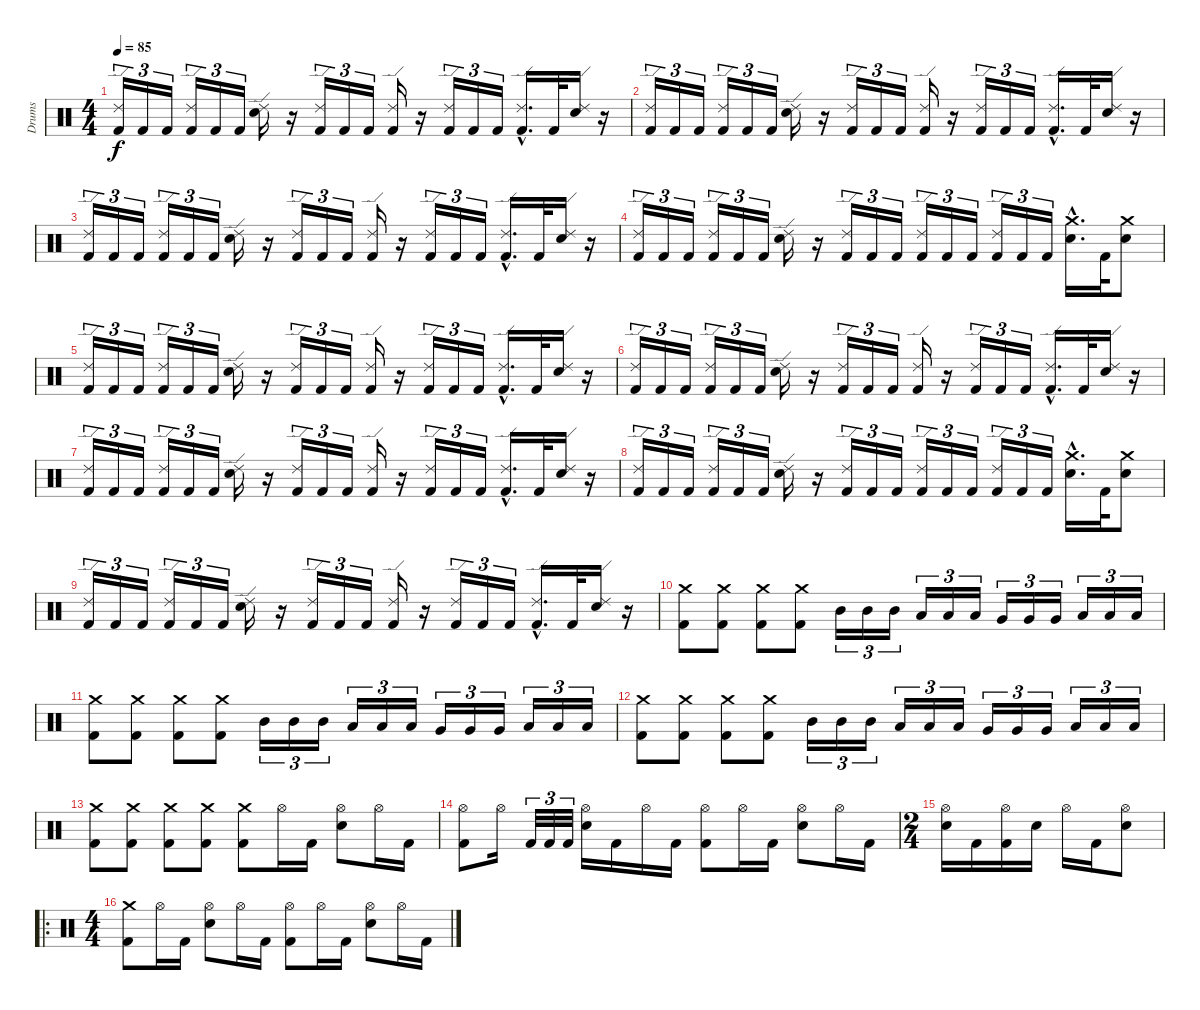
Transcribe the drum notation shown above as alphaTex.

\track ("Drums" "Drums") {instrument percussion}
\staff {score}
\articulation defaults
\ts (4 4)
\tempo 85
\clef neutral
\ks c
("Ride (edge) 2" "Kick (hit) 2").16{tu (3 2) dy f} "Kick (hit) 2".16{tu (3 2)} "Kick (hit) 2".16{tu (3 2)} ("Ride (edge) 2" "Kick (hit) 2").16{tu (3 2)} "Kick (hit) 2".16{tu (3 2)} "Kick (hit) 2".16{tu (3 2)} ("Ride (edge) 2" "Snare (hit) 2").16 r.16 ("Ride (edge) 2" "Kick (hit) 2").16{tu (3 2)} "Kick (hit) 2".16{tu (3 2)} "Kick (hit) 2".16{tu (3 2)} ("Ride (edge) 2" "Kick (hit) 2").16 r.16 ("Ride (edge) 2" "Kick (hit) 2").16{tu (3 2)} "Kick (hit) 2".16{tu (3 2)} "Kick (hit) 2".16{tu (3 2)} ("Ride (edge) 2"{hac} "Kick (hit) 2"{hac}).16{d} "Kick (hit) 2".32 ("Ride (edge) 2" "Snare (hit) 2").16 r.16 |
("Ride (edge) 2" "Kick (hit) 2").16{tu (3 2)} "Kick (hit) 2".16{tu (3 2)} "Kick (hit) 2".16{tu (3 2)} ("Ride (edge) 2" "Kick (hit) 2").16{tu (3 2)} "Kick (hit) 2".16{tu (3 2)} "Kick (hit) 2".16{tu (3 2)} ("Ride (edge) 2" "Snare (hit) 2").16 r.16 ("Ride (edge) 2" "Kick (hit) 2").16{tu (3 2)} "Kick (hit) 2".16{tu (3 2)} "Kick (hit) 2".16{tu (3 2)} ("Ride (edge) 2" "Kick (hit) 2").16 r.16 ("Ride (edge) 2" "Kick (hit) 2").16{tu (3 2)} "Kick (hit) 2".16{tu (3 2)} "Kick (hit) 2".16{tu (3 2)} ("Ride (edge) 2"{hac} "Kick (hit) 2"{hac}).16{d} "Kick (hit) 2".32 ("Ride (edge) 2" "Snare (hit) 2").16 r.16 |
("Ride (edge) 2" "Kick (hit) 2").16{tu (3 2)} "Kick (hit) 2".16{tu (3 2)} "Kick (hit) 2".16{tu (3 2)} ("Ride (edge) 2" "Kick (hit) 2").16{tu (3 2)} "Kick (hit) 2".16{tu (3 2)} "Kick (hit) 2".16{tu (3 2)} ("Ride (edge) 2" "Snare (hit) 2").16 r.16 ("Ride (edge) 2" "Kick (hit) 2").16{tu (3 2)} "Kick (hit) 2".16{tu (3 2)} "Kick (hit) 2".16{tu (3 2)} ("Ride (edge) 2" "Kick (hit) 2").16 r.16 ("Ride (edge) 2" "Kick (hit) 2").16{tu (3 2)} "Kick (hit) 2".16{tu (3 2)} "Kick (hit) 2".16{tu (3 2)} ("Ride (edge) 2"{hac} "Kick (hit) 2"{hac}).16{d} "Kick (hit) 2".32 ("Ride (edge) 2" "Snare (hit) 2").16 r.16 |
("Ride (edge) 2" "Kick (hit) 2").16{tu (3 2)} "Kick (hit) 2".16{tu (3 2)} "Kick (hit) 2".16{tu (3 2)} ("Ride (edge) 2" "Kick (hit) 2").16{tu (3 2)} "Kick (hit) 2".16{tu (3 2)} "Kick (hit) 2".16{tu (3 2)} ("Ride (edge) 2" "Snare (hit) 2").16 r.16 ("Ride (edge) 2" "Kick (hit) 2").16{tu (3 2)} "Kick (hit) 2".16{tu (3 2)} "Kick (hit) 2".16{tu (3 2)} ("Ride (edge) 2" "Kick (hit) 2").16{tu (3 2)} "Kick (hit) 2".16{tu (3 2)} "Kick (hit) 2".16{tu (3 2)} ("Ride (edge) 2" "Kick (hit) 2").16{tu (3 2)} "Kick (hit) 2".16{tu (3 2)} "Kick (hit) 2".16{tu (3 2)} ("Crash medium (hit)"{hac} "Snare (hit) 2"{hac}).16{d} "Kick (hit) 2".32 ("Crash medium (hit)" "Snare (hit) 2").8 |
("Ride (edge) 2" "Kick (hit) 2").16{tu (3 2)} "Kick (hit) 2".16{tu (3 2)} "Kick (hit) 2".16{tu (3 2)} ("Ride (edge) 2" "Kick (hit) 2").16{tu (3 2)} "Kick (hit) 2".16{tu (3 2)} "Kick (hit) 2".16{tu (3 2)} ("Ride (edge) 2" "Snare (hit) 2").16 r.16 ("Ride (edge) 2" "Kick (hit) 2").16{tu (3 2)} "Kick (hit) 2".16{tu (3 2)} "Kick (hit) 2".16{tu (3 2)} ("Ride (edge) 2" "Kick (hit) 2").16 r.16 ("Ride (edge) 2" "Kick (hit) 2").16{tu (3 2)} "Kick (hit) 2".16{tu (3 2)} "Kick (hit) 2".16{tu (3 2)} ("Ride (edge) 2"{hac} "Kick (hit) 2"{hac}).16{d} "Kick (hit) 2".32 ("Ride (edge) 2" "Snare (hit) 2").16 r.16 |
("Ride (edge) 2" "Kick (hit) 2").16{tu (3 2)} "Kick (hit) 2".16{tu (3 2)} "Kick (hit) 2".16{tu (3 2)} ("Ride (edge) 2" "Kick (hit) 2").16{tu (3 2)} "Kick (hit) 2".16{tu (3 2)} "Kick (hit) 2".16{tu (3 2)} ("Ride (edge) 2" "Snare (hit) 2").16 r.16 ("Ride (edge) 2" "Kick (hit) 2").16{tu (3 2)} "Kick (hit) 2".16{tu (3 2)} "Kick (hit) 2".16{tu (3 2)} ("Ride (edge) 2" "Kick (hit) 2").16 r.16 ("Ride (edge) 2" "Kick (hit) 2").16{tu (3 2)} "Kick (hit) 2".16{tu (3 2)} "Kick (hit) 2".16{tu (3 2)} ("Ride (edge) 2"{hac} "Kick (hit) 2"{hac}).16{d} "Kick (hit) 2".32 ("Ride (edge) 2" "Snare (hit) 2").16 r.16 |
("Ride (edge) 2" "Kick (hit) 2").16{tu (3 2)} "Kick (hit) 2".16{tu (3 2)} "Kick (hit) 2".16{tu (3 2)} ("Ride (edge) 2" "Kick (hit) 2").16{tu (3 2)} "Kick (hit) 2".16{tu (3 2)} "Kick (hit) 2".16{tu (3 2)} ("Ride (edge) 2" "Snare (hit) 2").16 r.16 ("Ride (edge) 2" "Kick (hit) 2").16{tu (3 2)} "Kick (hit) 2".16{tu (3 2)} "Kick (hit) 2".16{tu (3 2)} ("Ride (edge) 2" "Kick (hit) 2").16 r.16 ("Ride (edge) 2" "Kick (hit) 2").16{tu (3 2)} "Kick (hit) 2".16{tu (3 2)} "Kick (hit) 2".16{tu (3 2)} ("Ride (edge) 2"{hac} "Kick (hit) 2"{hac}).16{d} "Kick (hit) 2".32 ("Ride (edge) 2" "Snare (hit) 2").16 r.16 |
("Ride (edge) 2" "Kick (hit) 2").16{tu (3 2)} "Kick (hit) 2".16{tu (3 2)} "Kick (hit) 2".16{tu (3 2)} ("Ride (edge) 2" "Kick (hit) 2").16{tu (3 2)} "Kick (hit) 2".16{tu (3 2)} "Kick (hit) 2".16{tu (3 2)} ("Ride (edge) 2" "Snare (hit) 2").16 r.16 ("Ride (edge) 2" "Kick (hit) 2").16{tu (3 2)} "Kick (hit) 2".16{tu (3 2)} "Kick (hit) 2".16{tu (3 2)} ("Ride (edge) 2" "Kick (hit) 2").16{tu (3 2)} "Kick (hit) 2".16{tu (3 2)} "Kick (hit) 2".16{tu (3 2)} ("Ride (edge) 2" "Kick (hit) 2").16{tu (3 2)} "Kick (hit) 2".16{tu (3 2)} "Kick (hit) 2".16{tu (3 2)} ("Crash medium (hit)"{hac} "Snare (hit) 2"{hac}).16{d} "Kick (hit) 2".32 ("Crash medium (hit)" "Snare (hit) 2").8 |
("Ride (edge) 2" "Kick (hit) 2").16{tu (3 2)} "Kick (hit) 2".16{tu (3 2)} "Kick (hit) 2".16{tu (3 2)} ("Ride (edge) 2" "Kick (hit) 2").16{tu (3 2)} "Kick (hit) 2".16{tu (3 2)} "Kick (hit) 2".16{tu (3 2)} ("Ride (edge) 2" "Snare (hit) 2").16 r.16 ("Ride (edge) 2" "Kick (hit) 2").16{tu (3 2)} "Kick (hit) 2".16{tu (3 2)} "Kick (hit) 2".16{tu (3 2)} ("Ride (edge) 2" "Kick (hit) 2").16 r.16 ("Ride (edge) 2" "Kick (hit) 2").16{tu (3 2)} "Kick (hit) 2".16{tu (3 2)} "Kick (hit) 2".16{tu (3 2)} ("Ride (edge) 2"{hac} "Kick (hit) 2"{hac}).16{d} "Kick (hit) 2".32 ("Ride (edge) 2" "Snare (hit) 2").16 r.16 |
("Crash medium (hit)" "Kick (hit) 2").8 ("Crash medium (hit)" "Kick (hit) 2").8 ("Crash medium (hit)" "Kick (hit) 2").8 ("Crash medium (hit)" "Kick (hit) 2").8 "Mid Tom (hit)".16{tu (3 2)} "Mid Tom (hit)".16{tu (3 2)} "Mid Tom (hit)".16{tu (3 2)} "Low Tom (hit)".16{tu (3 2)} "Low Tom (hit)".16{tu (3 2)} "Low Tom (hit)".16{tu (3 2)} "Very Low Tom (hit)".16{tu (3 2)} "Very Low Tom (hit)".16{tu (3 2)} "Very Low Tom (hit)".16{tu (3 2)} "Low Floor Tom (hit)".16{tu (3 2)} "Low Floor Tom (hit)".16{tu (3 2)} "Low Floor Tom (hit)".16{tu (3 2)} |
("Crash medium (hit)" "Kick (hit) 2").8 ("Crash medium (hit)" "Kick (hit) 2").8 ("Crash medium (hit)" "Kick (hit) 2").8 ("Crash medium (hit)" "Kick (hit) 2").8 "Mid Tom (hit)".16{tu (3 2)} "Mid Tom (hit)".16{tu (3 2)} "Mid Tom (hit)".16{tu (3 2)} "Low Tom (hit)".16{tu (3 2)} "Low Tom (hit)".16{tu (3 2)} "Low Tom (hit)".16{tu (3 2)} "Very Low Tom (hit)".16{tu (3 2)} "Very Low Tom (hit)".16{tu (3 2)} "Very Low Tom (hit)".16{tu (3 2)} "Low Floor Tom (hit)".16{tu (3 2)} "Low Floor Tom (hit)".16{tu (3 2)} "Low Floor Tom (hit)".16{tu (3 2)} |
("Crash medium (hit)" "Kick (hit) 2").8 ("Crash medium (hit)" "Kick (hit) 2").8 ("Crash medium (hit)" "Kick (hit) 2").8 ("Crash medium (hit)" "Kick (hit) 2").8 "Mid Tom (hit)".16{tu (3 2)} "Mid Tom (hit)".16{tu (3 2)} "Mid Tom (hit)".16{tu (3 2)} "Low Tom (hit)".16{tu (3 2)} "Low Tom (hit)".16{tu (3 2)} "Low Tom (hit)".16{tu (3 2)} "Very Low Tom (hit)".16{tu (3 2)} "Very Low Tom (hit)".16{tu (3 2)} "Very Low Tom (hit)".16{tu (3 2)} "Low Floor Tom (hit)".16{tu (3 2)} "Low Floor Tom (hit)".16{tu (3 2)} "Low Floor Tom (hit)".16{tu (3 2)} |
("Crash medium (hit)" "Kick (hit) 2").8 ("Crash medium (hit)" "Kick (hit) 2").8 ("Crash medium (hit)" "Kick (hit) 2").8 ("Crash medium (hit)" "Kick (hit) 2").8 ("Crash medium (hit)" "Kick (hit) 2").8 "Hi-Hat (open)".16 "Kick (hit) 2".16 ("Hi-Hat (open)" "Snare (hit) 2").8 "Hi-Hat (open)".16 "Kick (hit) 2".16 |
("Hi-Hat (open)" "Kick (hit) 2").8 "Hi-Hat (open)".16 "Kick (hit) 2".32{tu (3 2)} "Kick (hit) 2".32{tu (3 2)} "Kick (hit) 2".32{tu (3 2)} ("Hi-Hat (open)" "Snare (hit) 2").16 "Kick (hit) 2".16 "Hi-Hat (open)".16 "Kick (hit) 2".16 ("Hi-Hat (open)" "Kick (hit) 2").8 "Hi-Hat (open)".16 "Kick (hit) 2".16 ("Hi-Hat (open)" "Snare (hit) 2").8 "Hi-Hat (open)".16 "Kick (hit) 2".16 |
\ts (2 4)
("Hi-Hat (open)" "Snare (hit) 2").16 "Kick (hit) 2".16 ("Hi-Hat (open)" "Kick (hit) 2").16 "Snare (hit) 2".16 "Hi-Hat (open)".16 "Kick (hit) 2".16 ("Hi-Hat (open)" "Snare (hit) 2").8 |
\ro
\ts (4 4)
("Crash medium (hit)" "Kick (hit) 2").8 "Hi-Hat (open)".16 "Kick (hit) 2".16 ("Hi-Hat (open)" "Snare (hit) 2").8 "Hi-Hat (open)".16 "Kick (hit) 2".16 ("Hi-Hat (open)" "Kick (hit) 2").8 "Hi-Hat (open)".16 "Kick (hit) 2".16 ("Hi-Hat (open)" "Snare (hit) 2").8 "Hi-Hat (open)".16 "Kick (hit) 2".16
